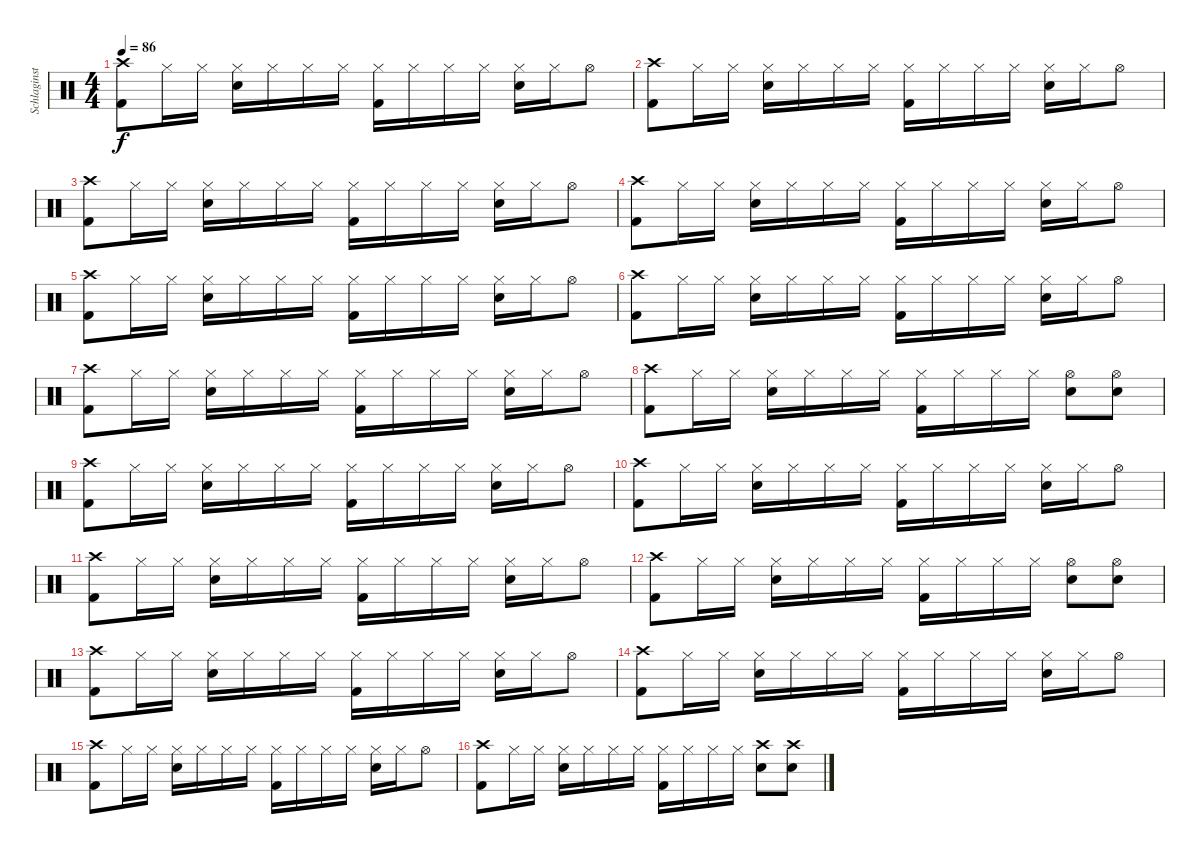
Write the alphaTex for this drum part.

\track ("Schlaginstrumente - Auswahl" "Schlaginst") {instrument percussion}
\staff {score}
\articulation defaults
\ts (4 4)
\tempo 86
\clef neutral
\ks c
("Crash high (hit)" "Kick (hit) 2").8{dy f} "Hi-Hat (closed)".16 "Hi-Hat (closed)".16 ("Hi-Hat (closed)" "Snare (hit) 2").16 "Hi-Hat (closed)".16 "Hi-Hat (closed)".16 "Hi-Hat (closed)".16 ("Hi-Hat (closed)" "Kick (hit) 2").16 "Hi-Hat (closed)".16 "Hi-Hat (closed)".16 "Hi-Hat (closed)".16 ("Hi-Hat (closed)" "Snare (hit) 2").16 "Hi-Hat (closed)".16 "Hi-Hat (open)".8 |
("Crash high (hit)" "Kick (hit) 2").8 "Hi-Hat (closed)".16 "Hi-Hat (closed)".16 ("Hi-Hat (closed)" "Snare (hit) 2").16 "Hi-Hat (closed)".16 "Hi-Hat (closed)".16 "Hi-Hat (closed)".16 ("Hi-Hat (closed)" "Kick (hit) 2").16 "Hi-Hat (closed)".16 "Hi-Hat (closed)".16 "Hi-Hat (closed)".16 ("Hi-Hat (closed)" "Snare (hit) 2").16 "Hi-Hat (closed)".16 "Hi-Hat (open)".8 |
("Crash high (hit)" "Kick (hit) 2").8 "Hi-Hat (closed)".16 "Hi-Hat (closed)".16 ("Hi-Hat (closed)" "Snare (hit) 2").16 "Hi-Hat (closed)".16 "Hi-Hat (closed)".16 "Hi-Hat (closed)".16 ("Hi-Hat (closed)" "Kick (hit) 2").16 "Hi-Hat (closed)".16 "Hi-Hat (closed)".16 "Hi-Hat (closed)".16 ("Hi-Hat (closed)" "Snare (hit) 2").16 "Hi-Hat (closed)".16 "Hi-Hat (open)".8 |
("Crash high (hit)" "Kick (hit) 2").8 "Hi-Hat (closed)".16 "Hi-Hat (closed)".16 ("Hi-Hat (closed)" "Snare (hit) 2").16 "Hi-Hat (closed)".16 "Hi-Hat (closed)".16 "Hi-Hat (closed)".16 ("Hi-Hat (closed)" "Kick (hit) 2").16 "Hi-Hat (closed)".16 "Hi-Hat (closed)".16 "Hi-Hat (closed)".16 ("Hi-Hat (closed)" "Snare (hit) 2").16 "Hi-Hat (closed)".16 "Hi-Hat (open)".8 |
("Crash high (hit)" "Kick (hit) 2").8 "Hi-Hat (closed)".16 "Hi-Hat (closed)".16 ("Hi-Hat (closed)" "Snare (hit) 2").16 "Hi-Hat (closed)".16 "Hi-Hat (closed)".16 "Hi-Hat (closed)".16 ("Hi-Hat (closed)" "Kick (hit) 2").16 "Hi-Hat (closed)".16 "Hi-Hat (closed)".16 "Hi-Hat (closed)".16 ("Hi-Hat (closed)" "Snare (hit) 2").16 "Hi-Hat (closed)".16 "Hi-Hat (open)".8 |
("Crash high (hit)" "Kick (hit) 2").8 "Hi-Hat (closed)".16 "Hi-Hat (closed)".16 ("Hi-Hat (closed)" "Snare (hit) 2").16 "Hi-Hat (closed)".16 "Hi-Hat (closed)".16 "Hi-Hat (closed)".16 ("Hi-Hat (closed)" "Kick (hit) 2").16 "Hi-Hat (closed)".16 "Hi-Hat (closed)".16 "Hi-Hat (closed)".16 ("Hi-Hat (closed)" "Snare (hit) 2").16 "Hi-Hat (closed)".16 "Hi-Hat (open)".8 |
("Crash high (hit)" "Kick (hit) 2").8 "Hi-Hat (closed)".16 "Hi-Hat (closed)".16 ("Hi-Hat (closed)" "Snare (hit) 2").16 "Hi-Hat (closed)".16 "Hi-Hat (closed)".16 "Hi-Hat (closed)".16 ("Hi-Hat (closed)" "Kick (hit) 2").16 "Hi-Hat (closed)".16 "Hi-Hat (closed)".16 "Hi-Hat (closed)".16 ("Hi-Hat (closed)" "Snare (hit) 2").16 "Hi-Hat (closed)".16 "Hi-Hat (open)".8 |
("Crash high (hit)" "Kick (hit) 2").8 "Hi-Hat (closed)".16 "Hi-Hat (closed)".16 ("Hi-Hat (closed)" "Snare (hit) 2").16 "Hi-Hat (closed)".16 "Hi-Hat (closed)".16 "Hi-Hat (closed)".16 ("Hi-Hat (closed)" "Kick (hit) 2").16 "Hi-Hat (closed)".16 "Hi-Hat (closed)".16 "Hi-Hat (closed)".16 ("Hi-Hat (open)" "Snare (hit) 2").8 ("Hi-Hat (open)" "Snare (hit) 2").8 |
("Crash high (hit)" "Kick (hit) 2").8 "Hi-Hat (closed)".16 "Hi-Hat (closed)".16 ("Hi-Hat (closed)" "Snare (hit) 2").16 "Hi-Hat (closed)".16 "Hi-Hat (closed)".16 "Hi-Hat (closed)".16 ("Hi-Hat (closed)" "Kick (hit) 2").16 "Hi-Hat (closed)".16 "Hi-Hat (closed)".16 "Hi-Hat (closed)".16 ("Hi-Hat (closed)" "Snare (hit) 2").16 "Hi-Hat (closed)".16 "Hi-Hat (open)".8 |
("Crash high (hit)" "Kick (hit) 2").8 "Hi-Hat (closed)".16 "Hi-Hat (closed)".16 ("Hi-Hat (closed)" "Snare (hit) 2").16 "Hi-Hat (closed)".16 "Hi-Hat (closed)".16 "Hi-Hat (closed)".16 ("Hi-Hat (closed)" "Kick (hit) 2").16 "Hi-Hat (closed)".16 "Hi-Hat (closed)".16 "Hi-Hat (closed)".16 ("Hi-Hat (closed)" "Snare (hit) 2").16 "Hi-Hat (closed)".16 "Hi-Hat (open)".8 |
("Crash high (hit)" "Kick (hit) 2").8 "Hi-Hat (closed)".16 "Hi-Hat (closed)".16 ("Hi-Hat (closed)" "Snare (hit) 2").16 "Hi-Hat (closed)".16 "Hi-Hat (closed)".16 "Hi-Hat (closed)".16 ("Hi-Hat (closed)" "Kick (hit) 2").16 "Hi-Hat (closed)".16 "Hi-Hat (closed)".16 "Hi-Hat (closed)".16 ("Hi-Hat (closed)" "Snare (hit) 2").16 "Hi-Hat (closed)".16 "Hi-Hat (open)".8 |
("Crash high (hit)" "Kick (hit) 2").8 "Hi-Hat (closed)".16 "Hi-Hat (closed)".16 ("Hi-Hat (closed)" "Snare (hit) 2").16 "Hi-Hat (closed)".16 "Hi-Hat (closed)".16 "Hi-Hat (closed)".16 ("Hi-Hat (closed)" "Kick (hit) 2").16 "Hi-Hat (closed)".16 "Hi-Hat (closed)".16 "Hi-Hat (closed)".16 ("Hi-Hat (open)" "Snare (hit) 2").8 ("Hi-Hat (open)" "Snare (hit) 2").8 |
("Crash high (hit)" "Kick (hit) 2").8 "Hi-Hat (closed)".16 "Hi-Hat (closed)".16 ("Hi-Hat (closed)" "Snare (hit) 2").16 "Hi-Hat (closed)".16 "Hi-Hat (closed)".16 "Hi-Hat (closed)".16 ("Hi-Hat (closed)" "Kick (hit) 2").16 "Hi-Hat (closed)".16 "Hi-Hat (closed)".16 "Hi-Hat (closed)".16 ("Hi-Hat (closed)" "Snare (hit) 2").16 "Hi-Hat (closed)".16 "Hi-Hat (open)".8 |
("Crash high (hit)" "Kick (hit) 2").8 "Hi-Hat (closed)".16 "Hi-Hat (closed)".16 ("Hi-Hat (closed)" "Snare (hit) 2").16 "Hi-Hat (closed)".16 "Hi-Hat (closed)".16 "Hi-Hat (closed)".16 ("Hi-Hat (closed)" "Kick (hit) 2").16 "Hi-Hat (closed)".16 "Hi-Hat (closed)".16 "Hi-Hat (closed)".16 ("Hi-Hat (closed)" "Snare (hit) 2").16 "Hi-Hat (closed)".16 "Hi-Hat (open)".8 |
("Crash high (hit)" "Kick (hit) 2").8 "Hi-Hat (closed)".16 "Hi-Hat (closed)".16 ("Hi-Hat (closed)" "Snare (hit) 2").16 "Hi-Hat (closed)".16 "Hi-Hat (closed)".16 "Hi-Hat (closed)".16 ("Hi-Hat (closed)" "Kick (hit) 2").16 "Hi-Hat (closed)".16 "Hi-Hat (closed)".16 "Hi-Hat (closed)".16 ("Hi-Hat (closed)" "Snare (hit) 2").16 "Hi-Hat (closed)".16 "Hi-Hat (open)".8 |
("Crash high (hit)" "Kick (hit) 2").8 "Hi-Hat (closed)".16 "Hi-Hat (closed)".16 ("Hi-Hat (closed)" "Snare (hit) 2").16 "Hi-Hat (closed)".16 "Hi-Hat (closed)".16 "Hi-Hat (closed)".16 ("Hi-Hat (closed)" "Kick (hit) 2").16 "Hi-Hat (closed)".16 "Hi-Hat (closed)".16 "Hi-Hat (closed)".16 ("Crash high (hit)" "Snare (hit) 2").8 ("Crash high (hit)" "Snare (hit) 2").8
